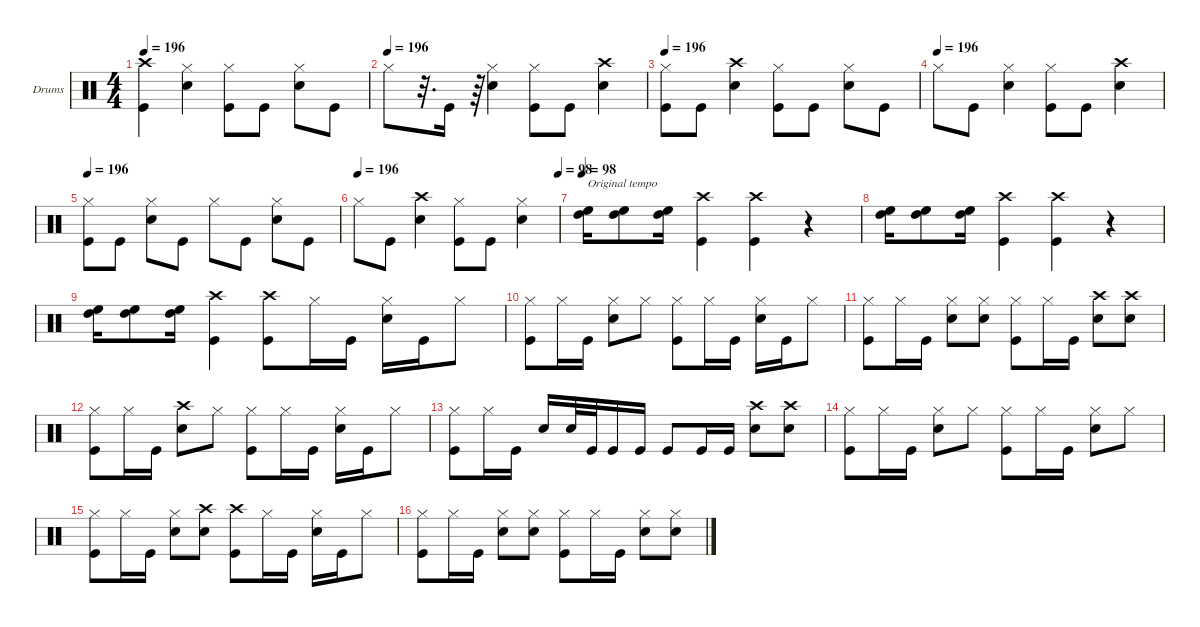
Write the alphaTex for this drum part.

\hideDynamics
\bracketExtendMode groupsimilarinstruments
\firstSystemTrackNameOrientation horizontal
\otherSystemsTrackNameOrientation horizontal
\track ("Drumkit" "Drums") {multiBarRest instrument percussion}
\staff {score}
\articulation defaults
\ts (4 4)
\tempo 196
\clef neutral
\ks c
("Kick (hit)" "Crash high (hit)").4{dy f} ("Snare (hit) 2" "Hi-Hat (closed)").4 ("Kick (hit)" "Hi-Hat (closed)").8 "Kick (hit)".8 ("Snare (hit) 2" "Hi-Hat (closed)").8 "Kick (hit)".8 |
\tempo (196)
"Hi-Hat (closed)".8 r.32{d} "Kick (hit)".16 r.64 ("Snare (hit) 2" "Hi-Hat (closed)").4 ("Kick (hit)" "Hi-Hat (closed)").8 "Kick (hit)".8 ("Crash high (hit)" "Snare (hit) 2").4 |
\tempo 196
("Hi-Hat (closed)" "Kick (hit)").8 "Kick (hit)".8 ("Snare (hit) 2" "Crash high (hit)").4 ("Hi-Hat (closed)" "Kick (hit)").8 "Kick (hit)".8 ("Snare (hit) 2" "Hi-Hat (closed)").8 "Kick (hit)".8 |
\tempo (196)
"Hi-Hat (closed)".8 "Kick (hit)".8 ("Snare (hit) 2" "Hi-Hat (closed)").4 ("Hi-Hat (closed)" "Kick (hit)").8 "Kick (hit)".8 ("Crash high (hit)" "Snare (hit) 2").4 |
\tempo 196
("Hi-Hat (closed)" "Kick (hit)").8 "Kick (hit)".8 ("Snare (hit) 2" "Hi-Hat (closed)").8 "Kick (hit)".8 "Hi-Hat (closed)".8 "Kick (hit)".8 ("Snare (hit) 2" "Hi-Hat (closed)").8 "Kick (hit)".8 |
\tempo 196
\tempo (98 1)
"Hi-Hat (closed)".8 "Kick (hit)".8 ("Crash high (hit)" "Snare (hit) 2").4 ("Hi-Hat (closed)" "Kick (hit)").8 "Kick (hit)".8 ("Snare (hit) 2" "Hi-Hat (closed)").4 |
\tempo 98
("High Floor Tom (hit)" "High Tom (hit)").16{txt "Original tempo"} ("High Tom (hit)" "High Floor Tom (hit)").8 ("High Floor Tom (hit)" "High Tom (hit)").16 ("Crash high (hit)" "Kick (hit)").4 ("Crash high (hit)" "Kick (hit)").4 r.4 |
("High Floor Tom (hit)" "High Tom (hit)").16 ("High Tom (hit)" "High Floor Tom (hit)").8 ("High Floor Tom (hit)" "High Tom (hit)").16 ("Crash high (hit)" "Kick (hit)").4 ("Crash high (hit)" "Kick (hit)").4 r.4 |
("High Tom (hit)" "High Floor Tom (hit)").16 ("High Tom (hit)" "High Floor Tom (hit)").8 ("High Tom (hit)" "High Floor Tom (hit)").16 ("Kick (hit)" "Crash high (hit)").4 ("Crash high (hit)" "Kick (hit)").8 "Hi-Hat (closed)".16 "Kick (hit)".16 ("Snare (hit) 2" "Hi-Hat (closed)").16 "Kick (hit)".16 "Hi-Hat (closed)".8 |
("Kick (hit)" "Hi-Hat (closed)").8 "Hi-Hat (closed)".16 "Kick (hit)".16 ("Snare (hit) 2" "Hi-Hat (closed)").8 "Hi-Hat (closed)".8 ("Kick (hit)" "Hi-Hat (closed)").8 "Hi-Hat (closed)".16 "Kick (hit)".16 ("Snare (hit) 2" "Hi-Hat (closed)").16 "Kick (hit)".16 "Hi-Hat (closed)".8 |
("Hi-Hat (closed)" "Kick (hit)").8 "Hi-Hat (closed)".16 "Kick (hit)".16 ("Snare (hit) 2" "Hi-Hat (closed)").8 ("Snare (hit) 2" "Hi-Hat (closed)").8 ("Hi-Hat (closed)" "Kick (hit)").8 "Hi-Hat (closed)".16 "Kick (hit)".16 ("Snare (hit) 2" "Crash high (hit)").8 ("Snare (hit) 2" "Crash high (hit)").8 |
("Kick (hit)" "Hi-Hat (closed)").8 "Hi-Hat (closed)".16 "Kick (hit)".16 ("Crash high (hit)" "Snare (hit) 2").8 "Hi-Hat (closed)".8 ("Kick (hit)" "Hi-Hat (closed)").8 "Hi-Hat (closed)".16 "Kick (hit)".16 ("Snare (hit) 2" "Hi-Hat (closed)").16 "Kick (hit)".16 "Hi-Hat (closed)".8 |
("Kick (hit)" "Hi-Hat (closed)").8 "Hi-Hat (closed)".16 "Kick (hit)".16 "Snare (hit) 2".16 "Snare (hit) 2".32 "Kick (hit)".32 "Kick (hit)".16 "Kick (hit)".16 "Kick (hit)".8 "Kick (hit)".16 "Kick (hit)".16 ("Crash high (hit)" "Snare (hit) 2").8 ("Crash high (hit)" "Snare (hit) 2").8 |
("Kick (hit)" "Hi-Hat (closed)").8 "Hi-Hat (closed)".16 "Kick (hit)".16 ("Snare (hit) 2" "Hi-Hat (closed)").8 "Hi-Hat (closed)".8 ("Kick (hit)" "Hi-Hat (closed)").8 "Hi-Hat (closed)".16 "Kick (hit)".16 ("Snare (hit) 2" "Hi-Hat (closed)").8 "Hi-Hat (closed)".8 |
("Hi-Hat (closed)" "Kick (hit)").8 "Hi-Hat (closed)".16 "Kick (hit)".16 ("Snare (hit) 2" "Hi-Hat (closed)").8 ("Crash high (hit)" "Snare (hit) 2").8 ("Crash high (hit)" "Kick (hit)").8 "Hi-Hat (closed)".16 "Kick (hit)".16 ("Hi-Hat (closed)" "Snare (hit) 2").16 "Kick (hit)".16 "Hi-Hat (closed)".8 |
("Hi-Hat (closed)" "Kick (hit)").8 "Hi-Hat (closed)".16 "Kick (hit)".16 ("Snare (hit) 2" "Hi-Hat (closed)").8 ("Snare (hit) 2" "Hi-Hat (closed)").8 ("Hi-Hat (closed)" "Kick (hit)").8 "Hi-Hat (closed)".16 "Kick (hit)".16 ("Snare (hit) 2" "Hi-Hat (closed)").8 ("Snare (hit) 2" "Hi-Hat (closed)").8
